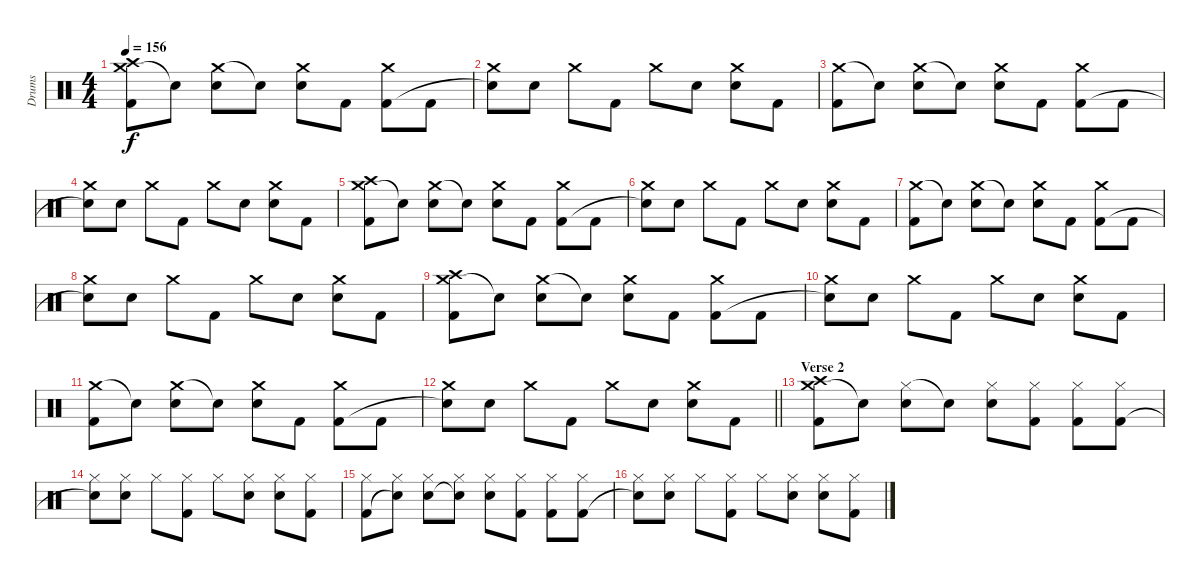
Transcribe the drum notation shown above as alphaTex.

\track ("Drums" "Drums") {instrument percussion}
\staff {score}
\articulation defaults
\ts (4 4)
\tempo 156
\clef neutral
\ks c
("Crash medium (hit)" "Crash high (hit)" "Kick (hit) 2").8{dy f} "Snare (hit)"{t}.8 ("Crash medium (hit)" "Electric Snare (hit)").8 "Snare (hit)"{t}.8 ("Crash medium (hit)" "Electric Snare (hit)").8 "Kick (hit) 2".8 ("Crash medium (hit)" "Kick (hit) 2").8 "Kick (hit) 2".8 |
("Crash medium (hit)" "Snare (hit)"{t}).8 "Electric Snare (hit)".8 "Crash medium (hit)".8 "Kick (hit) 2".8 "Crash medium (hit)".8 "Electric Snare (hit)".8 ("Crash medium (hit)" "Electric Snare (hit)").8 "Kick (hit) 2".8 |
("Crash medium (hit)" "Kick (hit) 2").8 "Snare (hit)"{t}.8 ("Crash medium (hit)" "Electric Snare (hit)").8 "Snare (hit)"{t}.8 ("Crash medium (hit)" "Electric Snare (hit)").8 "Kick (hit) 2".8 ("Crash medium (hit)" "Kick (hit) 2").8 "Kick (hit) 2".8 |
("Crash medium (hit)" "Snare (hit)"{t}).8 "Electric Snare (hit)".8 "Crash medium (hit)".8 "Kick (hit) 2".8 "Crash medium (hit)".8 "Electric Snare (hit)".8 ("Crash medium (hit)" "Electric Snare (hit)").8 "Kick (hit) 2".8 |
("Crash medium (hit)" "Crash high (hit)" "Kick (hit) 2").8 "Snare (hit)"{t}.8 ("Crash medium (hit)" "Electric Snare (hit)").8 "Snare (hit)"{t}.8 ("Crash medium (hit)" "Electric Snare (hit)").8 "Kick (hit) 2".8 ("Crash medium (hit)" "Kick (hit) 2").8 "Kick (hit) 2".8 |
("Crash medium (hit)" "Snare (hit)"{t}).8 "Electric Snare (hit)".8 "Crash medium (hit)".8 "Kick (hit) 2".8 "Crash medium (hit)".8 "Electric Snare (hit)".8 ("Crash medium (hit)" "Electric Snare (hit)").8 "Kick (hit) 2".8 |
("Crash medium (hit)" "Kick (hit) 2").8 "Snare (hit)"{t}.8 ("Crash medium (hit)" "Electric Snare (hit)").8 "Snare (hit)"{t}.8 ("Crash medium (hit)" "Electric Snare (hit)").8 "Kick (hit) 2".8 ("Crash medium (hit)" "Kick (hit) 2").8 "Kick (hit) 2".8 |
("Crash medium (hit)" "Snare (hit)"{t}).8 "Electric Snare (hit)".8 "Crash medium (hit)".8 "Kick (hit) 2".8 "Crash medium (hit)".8 "Electric Snare (hit)".8 ("Crash medium (hit)" "Electric Snare (hit)").8 "Kick (hit) 2".8 |
("Crash medium (hit)" "Crash high (hit)" "Kick (hit) 2").8 "Snare (hit)"{t}.8 ("Crash medium (hit)" "Electric Snare (hit)").8 "Snare (hit)"{t}.8 ("Crash medium (hit)" "Electric Snare (hit)").8 "Kick (hit) 2".8 ("Crash medium (hit)" "Kick (hit) 2").8 "Kick (hit) 2".8 |
("Crash medium (hit)" "Snare (hit)"{t}).8 "Electric Snare (hit)".8 "Crash medium (hit)".8 "Kick (hit) 2".8 "Crash medium (hit)".8 "Electric Snare (hit)".8 ("Crash medium (hit)" "Electric Snare (hit)").8 "Kick (hit) 2".8 |
("Crash medium (hit)" "Kick (hit) 2").8 "Snare (hit)"{t}.8 ("Crash medium (hit)" "Electric Snare (hit)").8 "Snare (hit)"{t}.8 ("Crash medium (hit)" "Electric Snare (hit)").8 "Kick (hit) 2".8 ("Crash medium (hit)" "Kick (hit) 2").8 "Kick (hit) 2".8 |
\barLineRight lightlight
("Crash medium (hit)" "Snare (hit)"{t}).8 "Electric Snare (hit)".8 "Crash medium (hit)".8 "Kick (hit) 2".8 "Crash medium (hit)".8 "Electric Snare (hit)".8 ("Crash medium (hit)" "Electric Snare (hit)").8 "Kick (hit) 2".8 |
\section ("" "Verse 2")
("Crash medium (hit)" "Crash high (hit)" "Kick (hit) 2").8 "Snare (hit)"{t}.8 ("Hi-Hat (closed)" "Electric Snare (hit)").8 "Snare (hit)"{t}.8 ("Hi-Hat (closed)" "Electric Snare (hit)").8 ("Hi-Hat (closed)" "Kick (hit) 2").8 ("Hi-Hat (closed)" "Kick (hit) 2").8 ("Hi-Hat (closed)" "Kick (hit) 2").8 |
("Hi-Hat (closed)" "Snare (hit)"{t}).8 ("Hi-Hat (closed)" "Electric Snare (hit)").8 "Hi-Hat (closed)".8 ("Hi-Hat (closed)" "Kick (hit) 2").8 "Hi-Hat (closed)".8 ("Hi-Hat (closed)" "Electric Snare (hit)").8 ("Hi-Hat (closed)" "Electric Snare (hit)").8 ("Hi-Hat (closed)" "Kick (hit) 2").8 |
("Hi-Hat (closed)" "Kick (hit) 2").8 ("Hi-Hat (closed)" "Snare (hit)"{t}).8 ("Hi-Hat (closed)" "Electric Snare (hit)").8 ("Hi-Hat (closed)" "Snare (hit)"{t}).8 ("Hi-Hat (closed)" "Electric Snare (hit)").8 ("Hi-Hat (closed)" "Kick (hit) 2").8 ("Hi-Hat (closed)" "Kick (hit) 2").8 ("Hi-Hat (closed)" "Kick (hit) 2").8 |
("Hi-Hat (closed)" "Snare (hit)"{t}).8 ("Hi-Hat (closed)" "Electric Snare (hit)").8 "Hi-Hat (closed)".8 ("Hi-Hat (closed)" "Kick (hit) 2").8 "Hi-Hat (closed)".8 ("Hi-Hat (closed)" "Electric Snare (hit)").8 ("Hi-Hat (closed)" "Electric Snare (hit)").8 ("Hi-Hat (closed)" "Kick (hit) 2").8
